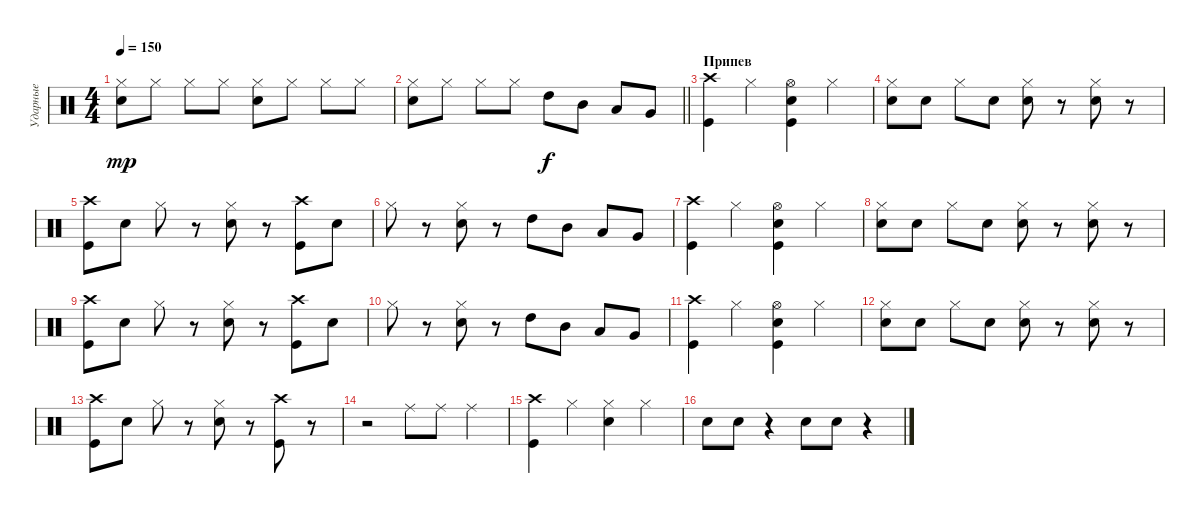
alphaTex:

\track ("Ударные" "Ударные") {instrument percussion}
\staff {score}
\articulation defaults
\ts (4 4)
\tempo 150
\clef neutral
\ks c
("Hi-Hat (closed)" "Snare (hit) 2").8{dy mp} "Hi-Hat (closed)".8 "Hi-Hat (closed)".8 "Hi-Hat (closed)".8 ("Hi-Hat (closed)" "Snare (hit) 2").8 "Hi-Hat (closed)".8 "Hi-Hat (closed)".8 "Hi-Hat (closed)".8 |
\barLineRight lightlight
("Hi-Hat (closed)" "Snare (hit) 2").8 "Hi-Hat (closed)".8 "Hi-Hat (closed)".8 "Hi-Hat (closed)".8 "High Tom (hit)".8{dy f} "Mid Tom (hit)".8 "Low Tom (hit)".8 "Very Low Tom (hit)".8 |
\section ("" "Припев")
("Crash high (hit)" "Kick (hit)").4 "Hi-Hat (closed)".4 ("Hi-Hat (open)" "Snare (hit) 2" "Kick (hit)").4 "Hi-Hat (closed)".4 |
("Hi-Hat (closed)" "Snare (hit) 2").8 "Snare (hit) 2".8 "Hi-Hat (closed)".8 "Snare (hit) 2".8 ("Hi-Hat (closed)" "Snare (hit) 2").8 r.8 ("Hi-Hat (closed)" "Snare (hit) 2").8 r.8 |
("Crash high (hit)" "Kick (hit)").8 "Snare (hit) 2".8 "Hi-Hat (closed)".8 r.8 ("Hi-Hat (closed)" "Snare (hit) 2").8 r.8 ("Crash high (hit)" "Kick (hit)").8 "Snare (hit) 2".8 |
"Hi-Hat (closed)".8 r.8 ("Hi-Hat (closed)" "Snare (hit) 2").8 r.8 "High Tom (hit)".8 "Mid Tom (hit)".8 "Low Tom (hit)".8 "Very Low Tom (hit)".8 |
("Crash high (hit)" "Kick (hit)").4 "Hi-Hat (closed)".4 ("Hi-Hat (open)" "Snare (hit) 2" "Kick (hit)").4 "Hi-Hat (closed)".4 |
("Hi-Hat (closed)" "Snare (hit) 2").8 "Snare (hit) 2".8 "Hi-Hat (closed)".8 "Snare (hit) 2".8 ("Hi-Hat (closed)" "Snare (hit) 2").8 r.8 ("Hi-Hat (closed)" "Snare (hit) 2").8 r.8 |
("Crash high (hit)" "Kick (hit)").8 "Snare (hit) 2".8 "Hi-Hat (closed)".8 r.8 ("Hi-Hat (closed)" "Snare (hit) 2").8 r.8 ("Crash high (hit)" "Kick (hit)").8 "Snare (hit) 2".8 |
"Hi-Hat (closed)".8 r.8 ("Hi-Hat (closed)" "Snare (hit) 2").8 r.8 "High Tom (hit)".8 "Mid Tom (hit)".8 "Low Tom (hit)".8 "Very Low Tom (hit)".8 |
("Crash high (hit)" "Kick (hit)").4 "Hi-Hat (closed)".4 ("Hi-Hat (open)" "Snare (hit) 2" "Kick (hit)").4 "Hi-Hat (closed)".4 |
("Hi-Hat (closed)" "Snare (hit) 2").8 "Snare (hit) 2".8 "Hi-Hat (closed)".8 "Snare (hit) 2".8 ("Hi-Hat (closed)" "Snare (hit) 2").8 r.8 ("Hi-Hat (closed)" "Snare (hit) 2").8 r.8 |
("Crash high (hit)" "Kick (hit)").8 "Snare (hit) 2".8 "Hi-Hat (closed)".8 r.8 ("Hi-Hat (closed)" "Snare (hit) 2").8 r.8 ("Crash high (hit)" "Kick (hit)").8 r.8 |
r.2 "Ride (middle)".8 "Ride (middle)".8 "Ride (middle)".4 |
("Crash high (hit)" "Kick (hit)").4 "Hi-Hat (closed)".4 ("Hi-Hat (closed)" "Snare (hit) 2").4 "Hi-Hat (closed)".4 |
"Snare (hit) 2".8 "Snare (hit) 2".8 r.4 "Snare (hit) 2".8 "Snare (hit) 2".8 r.4
